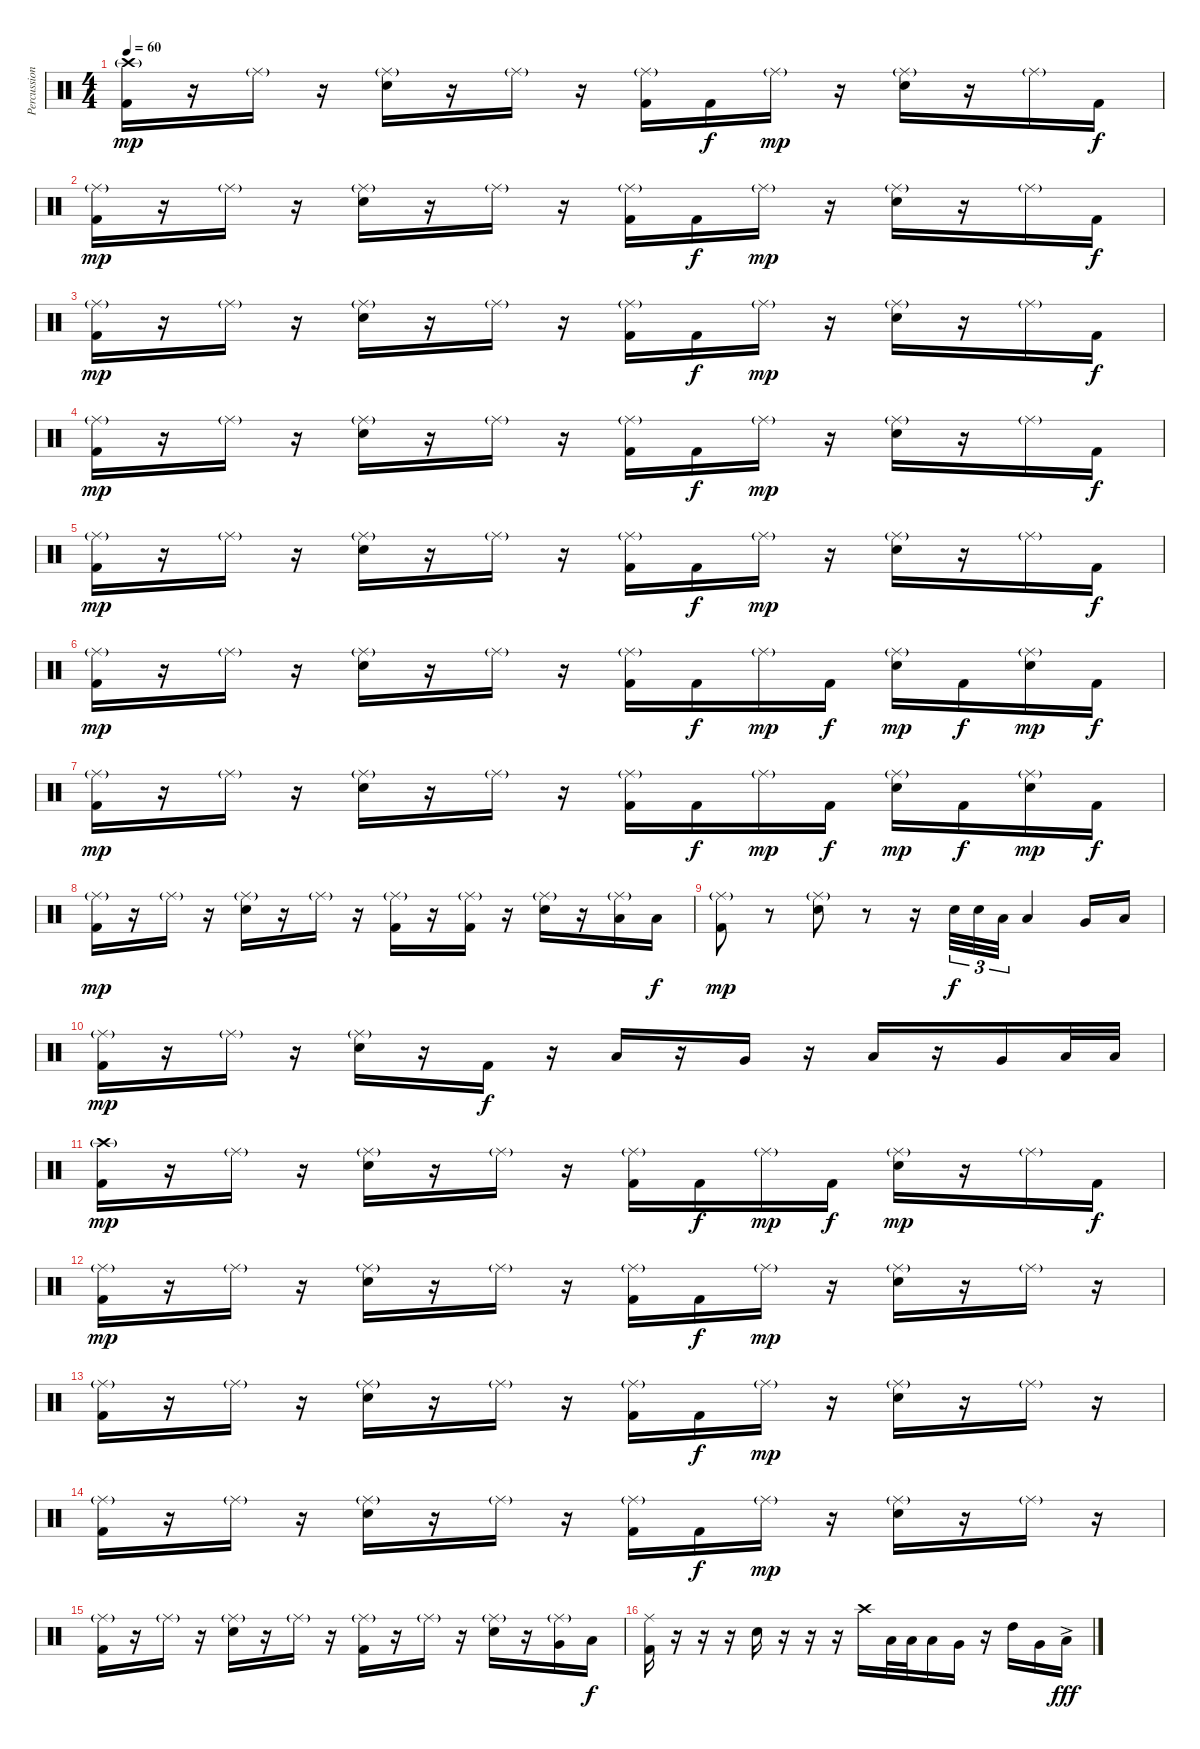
\track ("Percussion" "Percussion") {instrument percussion}
\staff {score}
\articulation defaults
\ts (4 4)
\tempo 60
\clef neutral
\ks c
("Crash high (hit)"{g} "Kick (hit) 2").16{dy mp} r.16 "Ride (middle)"{g}.16 r.16 ("Ride (middle)"{g} "Snare (hit) 2").16 r.16 "Ride (middle)"{g}.16 r.16 ("Ride (middle)"{g} "Kick (hit) 2").16 "Kick (hit) 2".16{dy f} "Ride (middle)"{g}.16{dy mp} r.16 ("Ride (middle)"{g} "Snare (hit) 2").16 r.16 "Ride (middle)"{g}.16 "Kick (hit) 2".16{dy f} |
("Ride (middle)"{g} "Kick (hit) 2").16{dy mp} r.16 "Ride (middle)"{g}.16 r.16 ("Ride (middle)"{g} "Snare (hit) 2").16 r.16 "Ride (middle)"{g}.16 r.16 ("Ride (middle)"{g} "Kick (hit) 2").16 "Kick (hit) 2".16{dy f} "Ride (middle)"{g}.16{dy mp} r.16 ("Ride (middle)"{g} "Snare (hit) 2").16 r.16 "Ride (middle)"{g}.16 "Kick (hit) 2".16{dy f} |
("Ride (middle)"{g} "Kick (hit) 2").16{dy mp} r.16 "Ride (middle)"{g}.16 r.16 ("Ride (middle)"{g} "Snare (hit) 2").16 r.16 "Ride (middle)"{g}.16 r.16 ("Ride (middle)"{g} "Kick (hit) 2").16 "Kick (hit) 2".16{dy f} "Ride (middle)"{g}.16{dy mp} r.16 ("Ride (middle)"{g} "Snare (hit) 2").16 r.16 "Ride (middle)"{g}.16 "Kick (hit) 2".16{dy f} |
("Ride (middle)"{g} "Kick (hit) 2").16{dy mp} r.16 "Ride (middle)"{g}.16 r.16 ("Ride (middle)"{g} "Snare (hit) 2").16 r.16 "Ride (middle)"{g}.16 r.16 ("Ride (middle)"{g} "Kick (hit) 2").16 "Kick (hit) 2".16{dy f} "Ride (middle)"{g}.16{dy mp} r.16 ("Ride (middle)"{g} "Snare (hit) 2").16 r.16 "Ride (middle)"{g}.16 "Kick (hit) 2".16{dy f} |
("Ride (middle)"{g} "Kick (hit) 2").16{dy mp} r.16 "Ride (middle)"{g}.16 r.16 ("Ride (middle)"{g} "Snare (hit) 2").16 r.16 "Ride (middle)"{g}.16 r.16 ("Ride (middle)"{g} "Kick (hit) 2").16 "Kick (hit) 2".16{dy f} "Ride (middle)"{g}.16{dy mp} r.16 ("Ride (middle)"{g} "Snare (hit) 2").16 r.16 "Ride (middle)"{g}.16 "Kick (hit) 2".16{dy f} |
("Ride (middle)"{g} "Kick (hit) 2").16{dy mp} r.16 "Ride (middle)"{g}.16 r.16 ("Ride (middle)"{g} "Snare (hit) 2").16 r.16 "Ride (middle)"{g}.16 r.16 ("Ride (middle)"{g} "Kick (hit) 2").16 "Kick (hit) 2".16{dy f} "Ride (middle)"{g}.16{dy mp} "Kick (hit) 2".16{dy f} ("Ride (middle)"{g} "Snare (hit) 2").16{dy mp} "Kick (hit) 2".16{dy f} ("Ride (middle)"{g} "Snare (hit) 2").16{dy mp} "Kick (hit) 2".16{dy f} |
("Ride (middle)"{g} "Kick (hit) 2").16{dy mp} r.16 "Ride (middle)"{g}.16 r.16 ("Ride (middle)"{g} "Snare (hit) 2").16 r.16 "Ride (middle)"{g}.16 r.16 ("Ride (middle)"{g} "Kick (hit) 2").16 "Kick (hit) 2".16{dy f} "Ride (middle)"{g}.16{dy mp} "Kick (hit) 2".16{dy f} ("Ride (middle)"{g} "Snare (hit) 2").16{dy mp} "Kick (hit) 2".16{dy f} ("Ride (middle)"{g} "Snare (hit) 2").16{dy mp} "Kick (hit) 2".16{dy f} |
("Ride (middle)"{g} "Kick (hit) 2").16{dy mp} r.16 "Ride (middle)"{g}.16 r.16 ("Ride (middle)"{g} "Snare (hit) 2").16 r.16 "Ride (middle)"{g}.16 r.16 ("Ride (middle)"{g} "Kick (hit) 2").16 r.16 ("Ride (middle)"{g} "Kick (hit) 2").16 r.16 ("Ride (middle)"{g} "Snare (hit) 2").16 r.16 ("Ride (middle)"{g} "Low Tom (hit)").16{balance 16} "Low Floor Tom (hit)".16{dy f balance 0} |
("Ride (middle)"{g} "Kick (hit) 2").8{dy mp balance 8} r.8 ("Ride (middle)"{g} "Snare (hit) 2").8 r.8 r.16 "Snare (hit) 2".32{tu (3 2) dy f} "Snare (hit) 2".32{tu (3 2)} "Low Tom (hit)".32{tu (3 2)} "Low Floor Tom (hit)".4 "Very Low Tom (hit)".16{balance 16} "Low Floor Tom (hit)".16{balance 0} |
("Ride (middle)"{g} "Kick (hit) 2").16{dy mp balance 8} r.16 "Ride (middle)"{g}.16 r.16 ("Ride (middle)"{g} "Snare (hit) 2").16 r.16 "Kick (hit) 2".16{dy f} r.16 "Low Tom (hit)".16 r.16 "Very Low Tom (hit)".16 r.16 "Low Floor Tom (hit)".16{balance 16} r.16 "Very Low Tom (hit)".16 "Low Floor Tom (hit)".32 "Low Floor Tom (hit)".32 |
("Crash high (hit)"{g} "Kick (hit) 2").16{dy mp balance 8} r.16 "Ride (middle)"{g}.16 r.16 ("Ride (middle)"{g} "Snare (hit) 2").16 r.16 "Ride (middle)"{g}.16 r.16 ("Ride (middle)"{g} "Kick (hit) 2").16 "Kick (hit) 2".16{dy f} "Ride (middle)"{g}.16{dy mp} "Kick (hit) 2".16{dy f} ("Ride (middle)"{g} "Snare (hit) 2").16{dy mp} r.16 "Ride (middle)"{g}.16 "Kick (hit) 2".16{dy f} |
("Ride (middle)"{g} "Kick (hit) 2").16{dy mp} r.16 "Ride (middle)"{g}.16 r.16 ("Ride (middle)"{g} "Snare (hit) 2").16 r.16 "Ride (middle)"{g}.16 r.16 ("Ride (middle)"{g} "Kick (hit) 2").16 "Kick (hit) 2".16{dy f} "Ride (middle)"{g}.16{dy mp} r.16 ("Ride (middle)"{g} "Snare (hit) 2").16 r.16 "Ride (middle)"{g}.16 r.16 |
("Ride (middle)"{g} "Kick (hit) 2").16 r.16 "Ride (middle)"{g}.16 r.16 ("Ride (middle)"{g} "Snare (hit) 2").16 r.16 "Ride (middle)"{g}.16 r.16 ("Ride (middle)"{g} "Kick (hit) 2").16 "Kick (hit) 2".16{dy f} "Ride (middle)"{g}.16{dy mp} r.16 ("Ride (middle)"{g} "Snare (hit) 2").16 r.16 "Ride (middle)"{g}.16 r.16 |
("Ride (middle)"{g} "Kick (hit) 2").16 r.16 "Ride (middle)"{g}.16 r.16 ("Ride (middle)"{g} "Snare (hit) 2").16 r.16 "Ride (middle)"{g}.16 r.16 ("Ride (middle)"{g} "Kick (hit) 2").16 "Kick (hit) 2".16{dy f} "Ride (middle)"{g}.16{dy mp} r.16 ("Ride (middle)"{g} "Snare (hit) 2").16 r.16 "Ride (middle)"{g}.16 r.16 |
("Ride (middle)"{g} "Kick (hit) 2").16 r.16 "Ride (middle)"{g}.16 r.16 ("Ride (middle)"{g} "Snare (hit) 2").16 r.16 "Ride (middle)"{g}.16 r.16 ("Ride (middle)"{g} "Kick (hit) 2").16 r.16 "Ride (middle)"{g}.16 r.16 ("Ride (middle)"{g} "Snare (hit) 2").16 r.16 ("Ride (middle)"{g} "Very Low Tom (hit)").16{balance 16} "Low Floor Tom (hit)".16{dy f balance 0} |
("Ride (middle)" "Kick (hit) 2").16{balance 8} r.16 r.16 r.16 "Snare (hit) 2".16 r.16 r.16 r.16 "Crash high (hit)".16 "Low Tom (hit)".32{balance 16} "Low Tom (hit)".32 "Low Tom (hit)".16{balance 0} "Very Low Tom (hit)".16 r.16 "High Tom (hit)".16{balance 16} "Very Low Tom (hit)".16 "Low Floor Tom (hit)"{ac}.16{dy fff balance 8}
